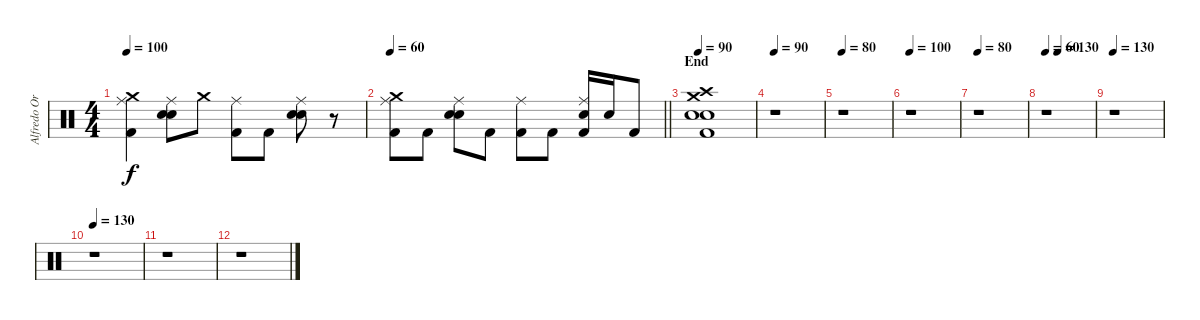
\track ("Alfredo Ortiz (Drums)" "Alfredo Or") {instrument percussion}
\staff {score}
\articulation defaults
\ts (4 4)
\tempo 100
\clef neutral
\ks c
("Kick (hit) 2" "Ride (middle)" "Crash medium (hit)").4{dy f} ("Snare (hit) 2" "Electric Snare (hit)" "Ride (middle)").8 "Crash medium (hit)".8 ("Kick (hit) 2" "Ride (middle)").8 "Kick (hit) 2".8 ("Snare (hit) 2" "Electric Snare (hit)" "Ride (middle)").8 r.8 |
\tempo 60
\barLineRight lightlight
("Kick (hit) 2" "Ride (middle)" "Crash medium (hit)").8 "Kick (hit) 2".8 ("Snare (hit) 2" "Electric Snare (hit)" "Ride (middle)").8 "Kick (hit) 2".8 ("Kick (hit) 2" "Ride (middle)").8 "Kick (hit) 2".8 ("Kick (hit) 2" "Electric Snare (hit)" "Ride (middle)").16 "Snare (hit) 2".16 "Kick (hit) 2".8 |
\section ("" "End")
\tempo 90
("Crash medium (hit)" "Kick (hit) 2" "Electric Snare (hit)" "Snare (hit) 2" "Crash high (hit)").1 |
\tempo 90
r.1 |
\tempo 80
r.1 |
\tempo 100
r.1 |
\tempo 80
r.1 |
\tempo 60
\tempo (130 0.25)
r.1 |
\tempo 130
r.1 |
\tempo 130
r.1 |
r.1 |
r.1
